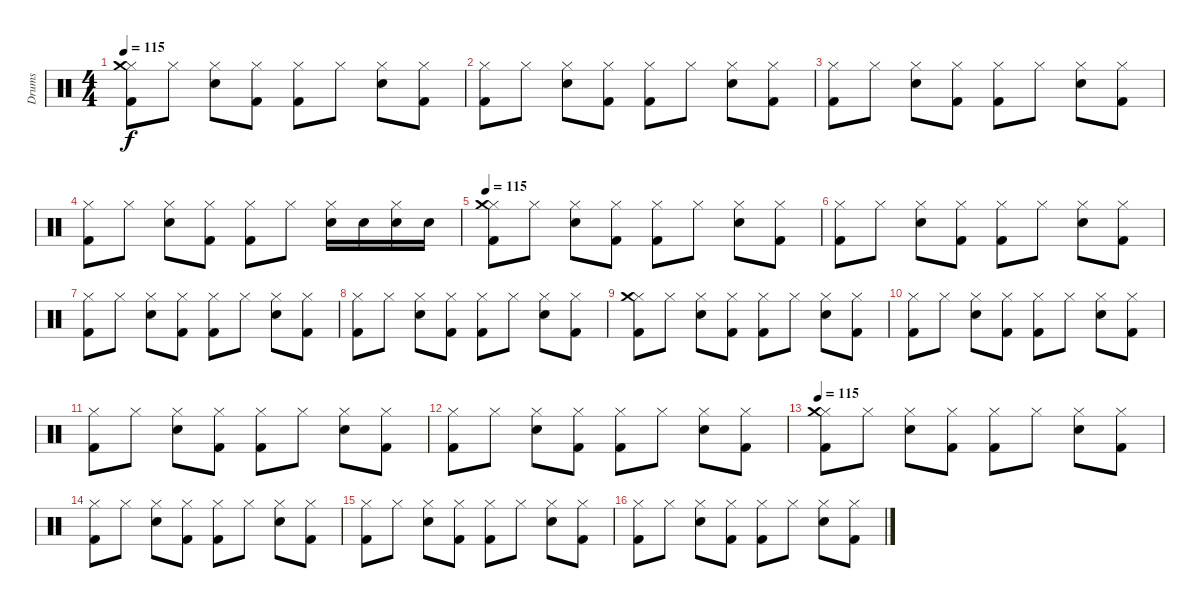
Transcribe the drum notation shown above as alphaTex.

\track ("Drums" "Drums") {instrument percussion}
\staff {score}
\articulation defaults
\ts (4 4)
\tempo 115
\clef neutral
\ks c
("Hi-Hat (closed)" "Crash medium (hit)" "Kick (hit) 2").8{dy f} "Hi-Hat (closed)".8 ("Hi-Hat (closed)" "Snare (hit) 2").8 ("Hi-Hat (closed)" "Kick (hit) 2").8 ("Hi-Hat (closed)" "Kick (hit) 2").8 "Hi-Hat (closed)".8 ("Hi-Hat (closed)" "Snare (hit) 2").8 ("Hi-Hat (closed)" "Kick (hit) 2").8 |
("Hi-Hat (closed)" "Kick (hit) 2").8 "Hi-Hat (closed)".8 ("Hi-Hat (closed)" "Snare (hit) 2").8 ("Hi-Hat (closed)" "Kick (hit) 2").8 ("Hi-Hat (closed)" "Kick (hit) 2").8 "Hi-Hat (closed)".8 ("Hi-Hat (closed)" "Snare (hit) 2").8 ("Hi-Hat (closed)" "Kick (hit) 2").8 |
("Hi-Hat (closed)" "Kick (hit) 2").8 "Hi-Hat (closed)".8 ("Hi-Hat (closed)" "Snare (hit) 2").8 ("Hi-Hat (closed)" "Kick (hit) 2").8 ("Hi-Hat (closed)" "Kick (hit) 2").8 "Hi-Hat (closed)".8 ("Hi-Hat (closed)" "Snare (hit) 2").8 ("Hi-Hat (closed)" "Kick (hit) 2").8 |
("Hi-Hat (closed)" "Kick (hit) 2").8 "Hi-Hat (closed)".8 ("Hi-Hat (closed)" "Snare (hit) 2").8 ("Hi-Hat (closed)" "Kick (hit) 2").8 ("Hi-Hat (closed)" "Kick (hit) 2").8 "Hi-Hat (closed)".8 ("Snare (hit) 2" "Hi-Hat (closed)").16 "Snare (hit) 2".16 ("Snare (hit) 2" "Hi-Hat (closed)").16 "Snare (hit) 2".16 |
\tempo 115
("Hi-Hat (closed)" "Crash medium (hit)" "Kick (hit) 2").8 "Hi-Hat (closed)".8 ("Hi-Hat (closed)" "Snare (hit) 2").8 ("Hi-Hat (closed)" "Kick (hit) 2").8 ("Hi-Hat (closed)" "Kick (hit) 2").8 "Hi-Hat (closed)".8 ("Hi-Hat (closed)" "Snare (hit) 2").8 ("Hi-Hat (closed)" "Kick (hit) 2").8 |
("Hi-Hat (closed)" "Kick (hit) 2").8 "Hi-Hat (closed)".8 ("Hi-Hat (closed)" "Snare (hit) 2").8 ("Hi-Hat (closed)" "Kick (hit) 2").8 ("Hi-Hat (closed)" "Kick (hit) 2").8 "Hi-Hat (closed)".8 ("Hi-Hat (closed)" "Snare (hit) 2").8 ("Hi-Hat (closed)" "Kick (hit) 2").8 |
("Hi-Hat (closed)" "Kick (hit) 2").8 "Hi-Hat (closed)".8 ("Hi-Hat (closed)" "Snare (hit) 2").8 ("Hi-Hat (closed)" "Kick (hit) 2").8 ("Hi-Hat (closed)" "Kick (hit) 2").8 "Hi-Hat (closed)".8 ("Hi-Hat (closed)" "Snare (hit) 2").8 ("Hi-Hat (closed)" "Kick (hit) 2").8 |
("Hi-Hat (closed)" "Kick (hit) 2").8 "Hi-Hat (closed)".8 ("Hi-Hat (closed)" "Snare (hit) 2").8 ("Hi-Hat (closed)" "Kick (hit) 2").8 ("Hi-Hat (closed)" "Kick (hit) 2").8 "Hi-Hat (closed)".8 ("Hi-Hat (closed)" "Snare (hit) 2").8 ("Hi-Hat (closed)" "Kick (hit) 2").8 |
("Hi-Hat (closed)" "Crash medium (hit)" "Kick (hit) 2").8 "Hi-Hat (closed)".8 ("Hi-Hat (closed)" "Snare (hit) 2").8 ("Hi-Hat (closed)" "Kick (hit) 2").8 ("Hi-Hat (closed)" "Kick (hit) 2").8 "Hi-Hat (closed)".8 ("Hi-Hat (closed)" "Snare (hit) 2").8 ("Hi-Hat (closed)" "Kick (hit) 2").8 |
("Hi-Hat (closed)" "Kick (hit) 2").8 "Hi-Hat (closed)".8 ("Hi-Hat (closed)" "Snare (hit) 2").8 ("Hi-Hat (closed)" "Kick (hit) 2").8 ("Hi-Hat (closed)" "Kick (hit) 2").8 "Hi-Hat (closed)".8 ("Hi-Hat (closed)" "Snare (hit) 2").8 ("Hi-Hat (closed)" "Kick (hit) 2").8 |
("Hi-Hat (closed)" "Kick (hit) 2").8 "Hi-Hat (closed)".8 ("Hi-Hat (closed)" "Snare (hit) 2").8 ("Hi-Hat (closed)" "Kick (hit) 2").8 ("Hi-Hat (closed)" "Kick (hit) 2").8 "Hi-Hat (closed)".8 ("Hi-Hat (closed)" "Snare (hit) 2").8 ("Hi-Hat (closed)" "Kick (hit) 2").8 |
("Hi-Hat (closed)" "Kick (hit) 2").8 "Hi-Hat (closed)".8 ("Hi-Hat (closed)" "Snare (hit) 2").8 ("Hi-Hat (closed)" "Kick (hit) 2").8 ("Hi-Hat (closed)" "Kick (hit) 2").8 "Hi-Hat (closed)".8 ("Hi-Hat (closed)" "Snare (hit) 2").8 ("Hi-Hat (closed)" "Kick (hit) 2").8 |
\tempo 115
("Hi-Hat (closed)" "Crash medium (hit)" "Kick (hit) 2").8 "Hi-Hat (closed)".8 ("Hi-Hat (closed)" "Snare (hit) 2").8 ("Hi-Hat (closed)" "Kick (hit) 2").8 ("Hi-Hat (closed)" "Kick (hit) 2").8 "Hi-Hat (closed)".8 ("Hi-Hat (closed)" "Snare (hit) 2").8 ("Hi-Hat (closed)" "Kick (hit) 2").8 |
("Hi-Hat (closed)" "Kick (hit) 2").8 "Hi-Hat (closed)".8 ("Hi-Hat (closed)" "Snare (hit) 2").8 ("Hi-Hat (closed)" "Kick (hit) 2").8 ("Hi-Hat (closed)" "Kick (hit) 2").8 "Hi-Hat (closed)".8 ("Hi-Hat (closed)" "Snare (hit) 2").8 ("Hi-Hat (closed)" "Kick (hit) 2").8 |
("Hi-Hat (closed)" "Kick (hit) 2").8 "Hi-Hat (closed)".8 ("Hi-Hat (closed)" "Snare (hit) 2").8 ("Hi-Hat (closed)" "Kick (hit) 2").8 ("Hi-Hat (closed)" "Kick (hit) 2").8 "Hi-Hat (closed)".8 ("Hi-Hat (closed)" "Snare (hit) 2").8 ("Hi-Hat (closed)" "Kick (hit) 2").8 |
("Hi-Hat (closed)" "Kick (hit) 2").8 "Hi-Hat (closed)".8 ("Hi-Hat (closed)" "Snare (hit) 2").8 ("Hi-Hat (closed)" "Kick (hit) 2").8 ("Hi-Hat (closed)" "Kick (hit) 2").8 "Hi-Hat (closed)".8 ("Hi-Hat (closed)" "Snare (hit) 2").8 ("Hi-Hat (closed)" "Kick (hit) 2").8
